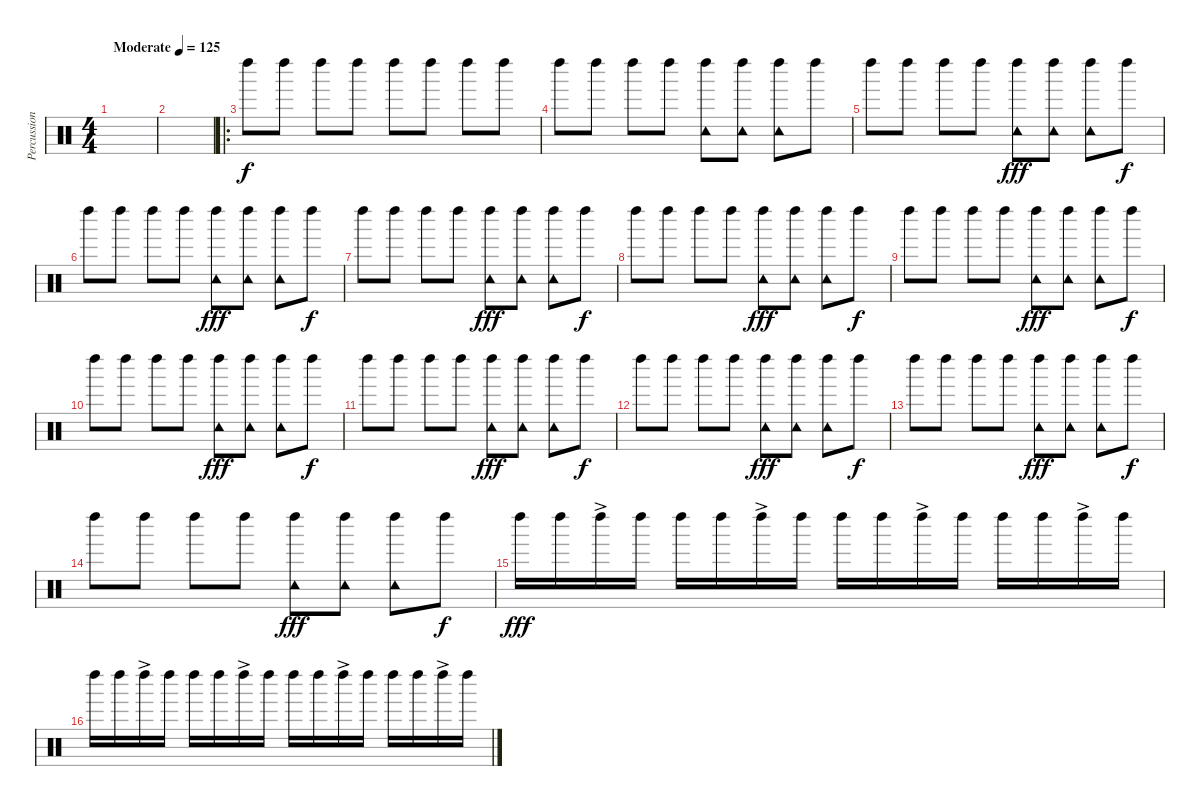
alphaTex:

\track ("Percussion" "Percussion") {instrument percussion}
\staff {score}
\articulation defaults
\ts (4 4)
\tempo (125 "Moderate")
\clef neutral
\ks c
|
|
\ro "Left Maraca (hit)".8 "Left Maraca (hit)".8 "Left Maraca (hit)".8 "Left Maraca (hit)".8 "Left Maraca (hit)".8 "Left Maraca (hit)".8 "Left Maraca (hit)".8 "Left Maraca (hit)".8
|
"Left Maraca (hit)".8 "Left Maraca (hit)".8 "Left Maraca (hit)".8 "Left Maraca (hit)".8 ("Left Maraca (hit)" "Tambourine (hit)").8 ("Left Maraca (hit)" "Tambourine (hit)").8 ("Left Maraca (hit)" "Tambourine (hit)").8 "Left Maraca (hit)".8 |
"Left Maraca (hit)".8 "Left Maraca (hit)".8 "Left Maraca (hit)".8 "Left Maraca (hit)".8 ("Left Maraca (hit)" "Tambourine (hit)").8{dy fff} ("Left Maraca (hit)" "Tambourine (hit)").8 ("Left Maraca (hit)" "Tambourine (hit)").8 "Left Maraca (hit)".8{dy f} |
"Left Maraca (hit)".8 "Left Maraca (hit)".8 "Left Maraca (hit)".8 "Left Maraca (hit)".8 ("Left Maraca (hit)" "Tambourine (hit)").8{dy fff} ("Left Maraca (hit)" "Tambourine (hit)").8 ("Left Maraca (hit)" "Tambourine (hit)").8 "Left Maraca (hit)".8{dy f} |
"Left Maraca (hit)".8 "Left Maraca (hit)".8 "Left Maraca (hit)".8 "Left Maraca (hit)".8 ("Left Maraca (hit)" "Tambourine (hit)").8{dy fff} ("Left Maraca (hit)" "Tambourine (hit)").8 ("Left Maraca (hit)" "Tambourine (hit)").8 "Left Maraca (hit)".8{dy f} |
"Left Maraca (hit)".8 "Left Maraca (hit)".8 "Left Maraca (hit)".8 "Left Maraca (hit)".8 ("Left Maraca (hit)" "Tambourine (hit)").8{dy fff} ("Left Maraca (hit)" "Tambourine (hit)").8 ("Left Maraca (hit)" "Tambourine (hit)").8 "Left Maraca (hit)".8{dy f} |
"Left Maraca (hit)".8 "Left Maraca (hit)".8 "Left Maraca (hit)".8 "Left Maraca (hit)".8 ("Left Maraca (hit)" "Tambourine (hit)").8{dy fff} ("Left Maraca (hit)" "Tambourine (hit)").8 ("Left Maraca (hit)" "Tambourine (hit)").8 "Left Maraca (hit)".8{dy f} |
"Left Maraca (hit)".8 "Left Maraca (hit)".8 "Left Maraca (hit)".8 "Left Maraca (hit)".8 ("Left Maraca (hit)" "Tambourine (hit)").8{dy fff} ("Left Maraca (hit)" "Tambourine (hit)").8 ("Left Maraca (hit)" "Tambourine (hit)").8 "Left Maraca (hit)".8{dy f} |
"Left Maraca (hit)".8 "Left Maraca (hit)".8 "Left Maraca (hit)".8 "Left Maraca (hit)".8 ("Left Maraca (hit)" "Tambourine (hit)").8{dy fff} ("Left Maraca (hit)" "Tambourine (hit)").8 ("Left Maraca (hit)" "Tambourine (hit)").8 "Left Maraca (hit)".8{dy f} |
"Left Maraca (hit)".8 "Left Maraca (hit)".8 "Left Maraca (hit)".8 "Left Maraca (hit)".8 ("Left Maraca (hit)" "Tambourine (hit)").8{dy fff} ("Left Maraca (hit)" "Tambourine (hit)").8 ("Left Maraca (hit)" "Tambourine (hit)").8 "Left Maraca (hit)".8{dy f} |
"Left Maraca (hit)".8 "Left Maraca (hit)".8 "Left Maraca (hit)".8 "Left Maraca (hit)".8 ("Left Maraca (hit)" "Tambourine (hit)").8{dy fff} ("Left Maraca (hit)" "Tambourine (hit)").8 ("Left Maraca (hit)" "Tambourine (hit)").8 "Left Maraca (hit)".8{dy f} |
"Left Maraca (hit)".8 "Left Maraca (hit)".8 "Left Maraca (hit)".8 "Left Maraca (hit)".8 ("Left Maraca (hit)" "Tambourine (hit)").8{dy fff} ("Left Maraca (hit)" "Tambourine (hit)").8 ("Left Maraca (hit)" "Tambourine (hit)").8 "Left Maraca (hit)".8{dy f} |
"Left Maraca (hit)".16{dy fff} "Left Maraca (hit)".16 "Left Maraca (hit)"{ac}.16 "Left Maraca (hit)".16 "Left Maraca (hit)".16 "Left Maraca (hit)".16 "Left Maraca (hit)"{ac}.16 "Left Maraca (hit)".16 "Left Maraca (hit)".16 "Left Maraca (hit)".16 "Left Maraca (hit)"{ac}.16 "Left Maraca (hit)".16 "Left Maraca (hit)".16 "Left Maraca (hit)".16 "Left Maraca (hit)"{ac}.16 "Left Maraca (hit)".16 |
"Left Maraca (hit)".16 "Left Maraca (hit)".16 "Left Maraca (hit)"{ac}.16 "Left Maraca (hit)".16 "Left Maraca (hit)".16 "Left Maraca (hit)".16 "Left Maraca (hit)"{ac}.16 "Left Maraca (hit)".16 "Left Maraca (hit)".16 "Left Maraca (hit)".16 "Left Maraca (hit)"{ac}.16 "Left Maraca (hit)".16 "Left Maraca (hit)".16 "Left Maraca (hit)".16 "Left Maraca (hit)"{ac}.16 "Left Maraca (hit)".16
